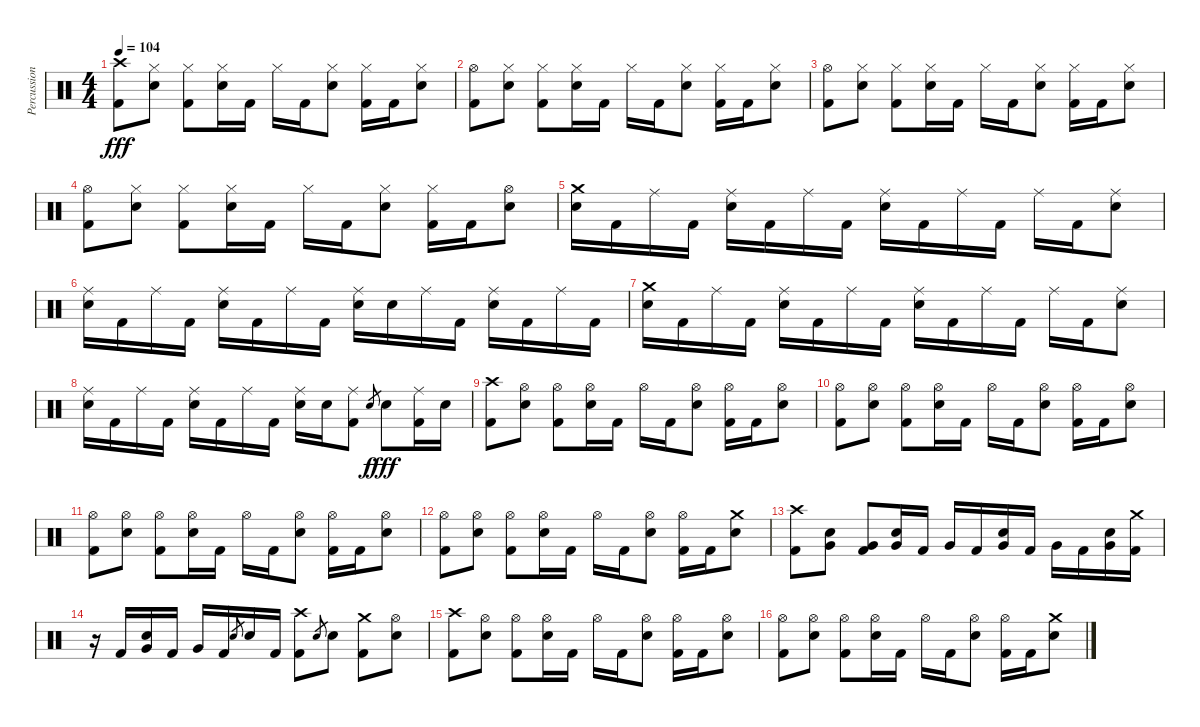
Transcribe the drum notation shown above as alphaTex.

\track ("Percussion" "Percussion") {instrument percussion}
\staff {score}
\articulation defaults
\ts (4 4)
\tempo 104
\clef neutral
\ks c
("Crash high (hit)" "Kick (hit) 2").8{dy fff} ("Hi-Hat (closed)" "Electric Snare (hit)").8 ("Hi-Hat (closed)" "Kick (hit) 2").8 ("Hi-Hat (closed)" "Electric Snare (hit)").16 "Kick (hit) 2".16 "Hi-Hat (closed)".16 "Kick (hit) 2".16 ("Hi-Hat (closed)" "Electric Snare (hit)").8 ("Hi-Hat (closed)" "Kick (hit) 2").16 "Kick (hit) 2".16 ("Hi-Hat (closed)" "Electric Snare (hit)").8 |
("Hi-Hat (open)" "Kick (hit) 2").8 ("Hi-Hat (closed)" "Electric Snare (hit)").8 ("Hi-Hat (closed)" "Kick (hit) 2").8 ("Hi-Hat (closed)" "Electric Snare (hit)").16 "Kick (hit) 2".16 "Hi-Hat (closed)".16 "Kick (hit) 2".16 ("Hi-Hat (closed)" "Electric Snare (hit)").8 ("Hi-Hat (closed)" "Kick (hit) 2").16 "Kick (hit) 2".16 ("Hi-Hat (closed)" "Electric Snare (hit)").8 |
("Hi-Hat (open)" "Kick (hit) 2").8 ("Hi-Hat (closed)" "Electric Snare (hit)").8 ("Hi-Hat (closed)" "Kick (hit) 2").8 ("Hi-Hat (closed)" "Electric Snare (hit)").16 "Kick (hit) 2".16 "Hi-Hat (closed)".16 "Kick (hit) 2".16 ("Hi-Hat (closed)" "Electric Snare (hit)").8 ("Hi-Hat (closed)" "Kick (hit) 2").16 "Kick (hit) 2".16 ("Hi-Hat (closed)" "Electric Snare (hit)").8 |
("Hi-Hat (open)" "Kick (hit) 2").8 ("Hi-Hat (closed)" "Electric Snare (hit)").8 ("Hi-Hat (closed)" "Kick (hit) 2").8 ("Hi-Hat (closed)" "Electric Snare (hit)").16 "Kick (hit) 2".16 "Hi-Hat (closed)".16 "Kick (hit) 2".16 ("Hi-Hat (closed)" "Electric Snare (hit)").8 ("Hi-Hat (closed)" "Kick (hit) 2").16 "Kick (hit) 2".16 ("Hi-Hat (open)" "Electric Snare (hit)").8 |
("Crash medium (hit)" "Electric Snare (hit)").16 "Kick (hit) 2".16 "Ride (middle)".16 "Kick (hit) 2".16 ("Ride (middle)" "Electric Snare (hit)").16 "Kick (hit) 2".16 "Ride (middle)".16 "Kick (hit) 2".16 ("Ride (middle)" "Electric Snare (hit)").16 "Kick (hit) 2".16 "Ride (middle)".16 "Kick (hit) 2".16 "Ride (middle)".16 "Kick (hit) 2".16 ("Ride (middle)" "Electric Snare (hit)").8 |
("Ride (middle)" "Electric Snare (hit)").16 "Kick (hit) 2".16 "Ride (middle)".16 "Kick (hit) 2".16 ("Ride (middle)" "Electric Snare (hit)").16 "Kick (hit) 2".16 "Ride (middle)".16 "Kick (hit) 2".16 ("Ride (middle)" "Electric Snare (hit)").16 "Electric Snare (hit)".16 "Ride (middle)".16 "Kick (hit) 2".16 ("Ride (middle)" "Electric Snare (hit)").16 "Kick (hit) 2".16 "Ride (middle)".16 "Kick (hit) 2".16 |
("Crash medium (hit)" "Electric Snare (hit)").16 "Kick (hit) 2".16 "Ride (middle)".16 "Kick (hit) 2".16 ("Ride (middle)" "Electric Snare (hit)").16 "Kick (hit) 2".16 "Ride (middle)".16 "Kick (hit) 2".16 ("Ride (middle)" "Electric Snare (hit)").16 "Kick (hit) 2".16 "Ride (middle)".16 "Kick (hit) 2".16 "Ride (middle)".16 "Kick (hit) 2".16 ("Ride (middle)" "Electric Snare (hit)").8 |
("Ride (middle)" "Electric Snare (hit)").16 "Kick (hit) 2".16 "Ride (middle)".16 "Kick (hit) 2".16 ("Ride (middle)" "Electric Snare (hit)").16 "Kick (hit) 2".16 "Ride (middle)".16 "Kick (hit) 2".16 ("Ride (middle)" "Electric Snare (hit)").16 "Electric Snare (hit)".16 ("Ride (middle)" "Kick (hit) 2").8 "Electric Snare (hit)".8{gr dy f} "Electric Snare (hit)".8{dy fff} ("Ride (middle)" "Kick (hit) 2").16 "Electric Snare (hit)".16 |
("Crash high (hit)" "Kick (hit) 2").8 ("Hi-Hat (open)" "Electric Snare (hit)").8 ("Hi-Hat (open)" "Kick (hit) 2").8 ("Hi-Hat (open)" "Electric Snare (hit)").16 "Kick (hit) 2".16 "Hi-Hat (open)".16 "Kick (hit) 2".16 ("Hi-Hat (open)" "Electric Snare (hit)").8 ("Hi-Hat (open)" "Kick (hit) 2").16 "Kick (hit) 2".16 ("Hi-Hat (open)" "Electric Snare (hit)").8 |
("Hi-Hat (open)" "Kick (hit) 2").8 ("Hi-Hat (open)" "Electric Snare (hit)").8 ("Hi-Hat (open)" "Kick (hit) 2").8 ("Hi-Hat (open)" "Electric Snare (hit)").16 "Kick (hit) 2".16 "Hi-Hat (open)".16 "Kick (hit) 2".16 ("Hi-Hat (open)" "Electric Snare (hit)").8 ("Hi-Hat (open)" "Kick (hit) 2").16 "Kick (hit) 2".16 ("Hi-Hat (open)" "Electric Snare (hit)").8 |
("Hi-Hat (open)" "Kick (hit) 2").8 ("Hi-Hat (open)" "Electric Snare (hit)").8 ("Hi-Hat (open)" "Kick (hit) 2").8 ("Hi-Hat (open)" "Electric Snare (hit)").16 "Kick (hit) 2".16 "Hi-Hat (open)".16 "Kick (hit) 2".16 ("Hi-Hat (open)" "Electric Snare (hit)").8 ("Hi-Hat (open)" "Kick (hit) 2").16 "Kick (hit) 2".16 ("Hi-Hat (open)" "Electric Snare (hit)").8 |
("Hi-Hat (open)" "Kick (hit) 2").8 ("Hi-Hat (open)" "Electric Snare (hit)").8 ("Hi-Hat (open)" "Kick (hit) 2").8 ("Hi-Hat (open)" "Electric Snare (hit)").16 "Kick (hit) 2".16 "Hi-Hat (open)".16 "Kick (hit) 2".16 ("Hi-Hat (open)" "Electric Snare (hit)").8 ("Hi-Hat (open)" "Kick (hit) 2").16 "Kick (hit) 2".16 ("Crash medium (hit)" "Electric Snare (hit)").8 |
("Crash high (hit)" "Kick (hit) 2").8 ("Very Low Tom (hit)" "Electric Snare (hit)").8 ("Very Low Tom (hit)" "Kick (hit) 2").8 ("Very Low Tom (hit)" "Electric Snare (hit)").16 "Kick (hit) 2".16 "Very Low Tom (hit)".16 "Kick (hit) 2".16 ("Very Low Tom (hit)" "Electric Snare (hit)").16 "Kick (hit) 2".16 "Very Low Tom (hit)".16 "Kick (hit) 2".16 ("Very Low Tom (hit)" "Electric Snare (hit)").16 ("Crash medium (hit)" "Kick (hit) 2").16 |
r.16 "Kick (hit) 2".16 ("Very Low Tom (hit)" "Electric Snare (hit)").16 "Kick (hit) 2".16 "Very Low Tom (hit)".16 "Kick (hit) 2".16 "Electric Snare (hit)".8{gr} "Electric Snare (hit)".16 "Kick (hit) 2".16 ("Crash high (hit)" "Kick (hit) 2").8 "Electric Snare (hit)".8{gr} "Electric Snare (hit)".8 ("Crash medium (hit)" "Kick (hit) 2").8 ("Hi-Hat (open)" "Electric Snare (hit)").8 |
("Crash high (hit)" "Kick (hit) 2").8 ("Hi-Hat (open)" "Electric Snare (hit)").8 ("Hi-Hat (open)" "Kick (hit) 2").8 ("Hi-Hat (open)" "Electric Snare (hit)").16 "Kick (hit) 2".16 "Hi-Hat (open)".16 "Kick (hit) 2".16 ("Hi-Hat (open)" "Electric Snare (hit)").8 ("Hi-Hat (open)" "Kick (hit) 2").16 "Kick (hit) 2".16 ("Hi-Hat (open)" "Electric Snare (hit)").8 |
("Hi-Hat (open)" "Kick (hit) 2").8 ("Hi-Hat (open)" "Electric Snare (hit)").8 ("Hi-Hat (open)" "Kick (hit) 2").8 ("Hi-Hat (open)" "Electric Snare (hit)").16 "Kick (hit) 2".16 "Hi-Hat (open)".16 "Kick (hit) 2".16 ("Hi-Hat (open)" "Electric Snare (hit)").8 ("Hi-Hat (open)" "Kick (hit) 2").16 "Kick (hit) 2".16 ("Crash medium (hit)" "Electric Snare (hit)").8
